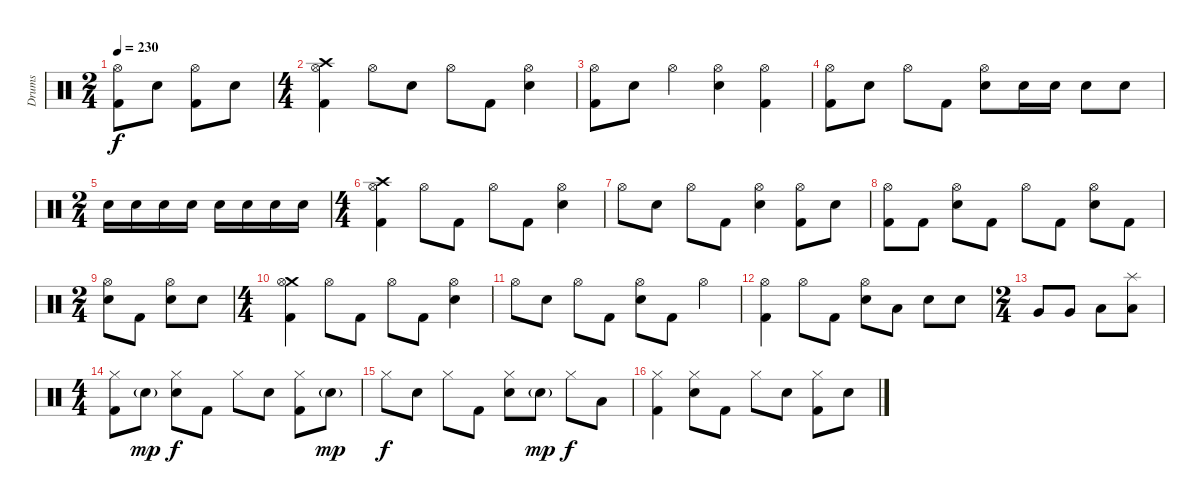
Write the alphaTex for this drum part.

\track ("Drums" "Drums") {instrument percussion}
\staff {score}
\articulation defaults
\ts (2 4)
\tempo 230
\clef neutral
\ks c
("Hi-Hat (open)" "Kick (hit) 2").8{dy f} "Electric Snare (hit)".8 ("Hi-Hat (open)" "Kick (hit) 2").8 "Electric Snare (hit)".8 |
\ts (4 4)
("Crash high (hit)" "Hi-Hat (open)" "Kick (hit) 2").4 "Hi-Hat (open)".8 "Electric Snare (hit)".8 "Hi-Hat (open)".8 "Kick (hit) 2".8 ("Hi-Hat (open)" "Electric Snare (hit)").4 |
("Hi-Hat (open)" "Kick (hit) 2").8 "Electric Snare (hit)".8 "Hi-Hat (open)".4 ("Hi-Hat (open)" "Electric Snare (hit)").4 ("Hi-Hat (open)" "Kick (hit) 2").4 |
("Hi-Hat (open)" "Kick (hit) 2").8 "Electric Snare (hit)".8 "Hi-Hat (open)".8 "Kick (hit) 2".8 ("Hi-Hat (open)" "Electric Snare (hit)").8 "Electric Snare (hit)".16 "Electric Snare (hit)".16 "Electric Snare (hit)".8 "Electric Snare (hit)".8 |
\ts (2 4)
"Electric Snare (hit)".16 "Electric Snare (hit)".16 "Electric Snare (hit)".16 "Electric Snare (hit)".16 "Electric Snare (hit)".16 "Electric Snare (hit)".16 "Electric Snare (hit)".16 "Electric Snare (hit)".16 |
\ts (4 4)
("Crash high (hit)" "Hi-Hat (open)" "Kick (hit) 2").4 "Hi-Hat (open)".8 "Kick (hit) 2".8 "Hi-Hat (open)".8 "Kick (hit) 2".8 ("Hi-Hat (open)" "Electric Snare (hit)").4 |
"Hi-Hat (open)".8 "Electric Snare (hit)".8 "Hi-Hat (open)".8 "Kick (hit) 2".8 ("Hi-Hat (open)" "Electric Snare (hit)").4 ("Hi-Hat (open)" "Kick (hit) 2").8 "Electric Snare (hit)".8 |
("Hi-Hat (open)" "Kick (hit) 2").8 "Kick (hit) 2".8 ("Hi-Hat (open)" "Electric Snare (hit)").8 "Kick (hit) 2".8 "Hi-Hat (open)".8 "Kick (hit) 2".8 ("Hi-Hat (open)" "Electric Snare (hit)").8 "Kick (hit) 2".8 |
\ts (2 4)
("Hi-Hat (open)" "Electric Snare (hit)").8 "Kick (hit) 2".8 ("Hi-Hat (open)" "Electric Snare (hit)").8 "Electric Snare (hit)".8 |
\ts (4 4)
("Crash medium (hit)" "Hi-Hat (open)" "Kick (hit) 2").4 "Hi-Hat (open)".8 "Kick (hit) 2".8 "Hi-Hat (open)".8 "Kick (hit) 2".8 ("Hi-Hat (open)" "Electric Snare (hit)").4 |
"Hi-Hat (open)".8 "Electric Snare (hit)".8 "Hi-Hat (open)".8 "Kick (hit) 2".8 ("Hi-Hat (open)" "Electric Snare (hit)").8 "Kick (hit) 2".8 "Hi-Hat (open)".4 |
("Hi-Hat (open)" "Kick (hit) 2").4 "Hi-Hat (open)".8 "Kick (hit) 2".8 ("Hi-Hat (open)" "Electric Snare (hit)").8 "Low Floor Tom (hit)".8 "Electric Snare (hit)".8 "Electric Snare (hit)".8 |
\ts (2 4)
"Very Low Tom (hit)".8 "Very Low Tom (hit)".8 "Low Floor Tom (hit)".8 ("Splash (hit)" "Low Floor Tom (hit)").8 |
\ts (4 4)
("Hi-Hat (closed)" "Kick (hit) 2").8 "Snare (hit) 2"{g}.8{dy mp} ("Hi-Hat (closed)" "Snare (hit) 2").8{dy f} "Kick (hit) 2".8 "Hi-Hat (closed)".8 "Snare (hit) 2".8 ("Hi-Hat (closed)" "Kick (hit) 2").8 "Snare (hit) 2"{g}.8{dy mp} |
"Hi-Hat (closed)".8{dy f} "Snare (hit) 2".8 "Hi-Hat (closed)".8 "Kick (hit) 2".8 ("Hi-Hat (closed)" "Snare (hit) 2").8 "Snare (hit) 2"{g}.8{dy mp} "Hi-Hat (closed)".8{dy f} "Low Tom (hit)".8 |
("Hi-Hat (closed)" "Kick (hit) 2").4 ("Hi-Hat (closed)" "Snare (hit) 2").8 "Kick (hit) 2".8 "Hi-Hat (closed)".8 "Snare (hit) 2".8 ("Hi-Hat (closed)" "Kick (hit) 2").8 "Snare (hit) 2".8
